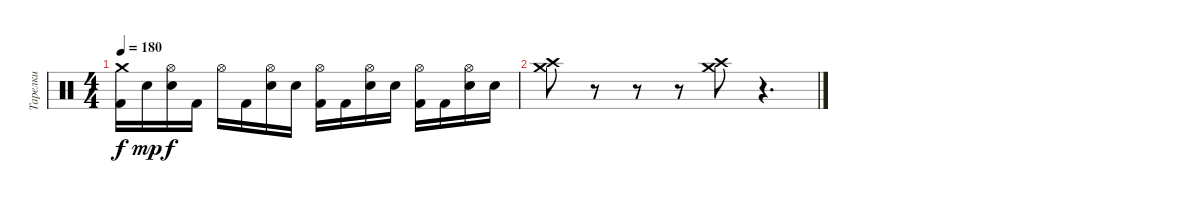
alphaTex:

\track ("Тарелки" "Тарелки") {instrument percussion}
\staff {score}
\articulation defaults
\ts (4 4)
\tempo 180
\clef neutral
\ks c
("Crash medium (hit)" "Kick (hit) 2").16{dy f} "Snare (hit)".16{dy mp} ("Hi-Hat (open)" "Snare (hit) 2").16{dy f} "Kick (hit) 2".16 "Hi-Hat (open)".16 "Kick (hit) 2".16 ("Hi-Hat (open)" "Snare (hit) 2").16 "Snare (hit)".16 ("Hi-Hat (open)" "Kick (hit) 2").16 "Kick (hit) 2".16 ("Hi-Hat (open)" "Snare (hit) 2").16 "Snare (hit)".16 ("Hi-Hat (open)" "Kick (hit) 2").16 "Kick (hit) 2".16 ("Hi-Hat (open)" "Snare (hit) 2").16 "Snare (hit)".16 |
("Crash medium (hit)" "Crash high (hit)").8 r.8 r.8 r.8 ("Crash medium (hit)" "Crash high (hit)").8 r.4{d}
